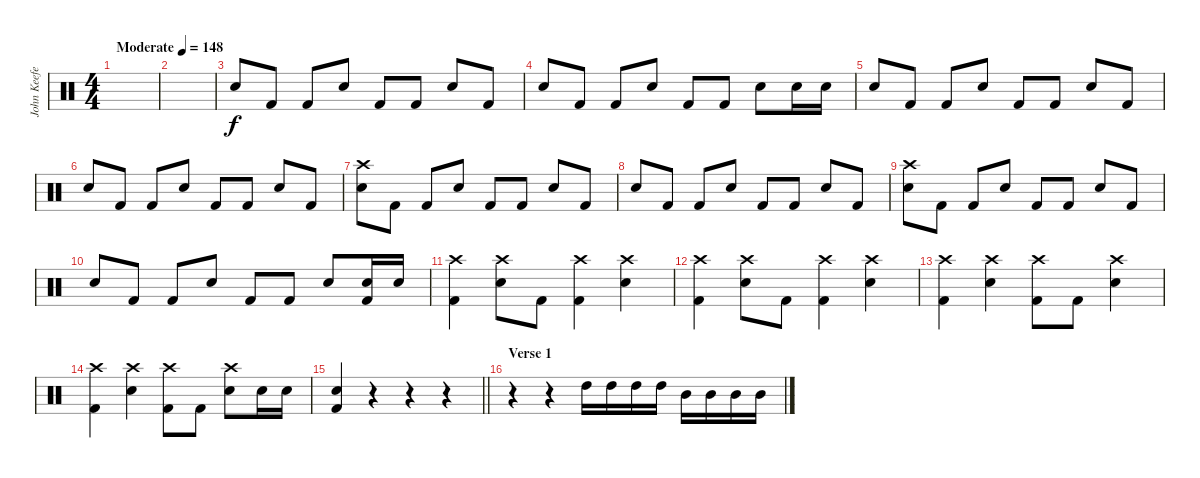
\track ("John Keefe (Percussion)" "John Keefe") {instrument percussion}
\staff {score}
\articulation defaults
\ts (4 4)
\tempo (148 "Moderate")
\clef neutral
\ks c
|
|
"Snare (hit) 2".8 "Kick (hit) 2".8 "Kick (hit) 2".8 "Snare (hit) 2".8 "Kick (hit) 2".8 "Kick (hit) 2".8 "Snare (hit) 2".8 "Kick (hit) 2".8 |
"Snare (hit) 2".8 "Kick (hit) 2".8 "Kick (hit) 2".8 "Snare (hit) 2".8 "Kick (hit) 2".8 "Kick (hit) 2".8 "Snare (hit) 2".8 "Snare (hit) 2".16 "Snare (hit) 2".16 |
"Snare (hit) 2".8 "Kick (hit) 2".8 "Kick (hit) 2".8 "Snare (hit) 2".8 "Kick (hit) 2".8 "Kick (hit) 2".8 "Snare (hit) 2".8 "Kick (hit) 2".8 |
"Snare (hit) 2".8 "Kick (hit) 2".8 "Kick (hit) 2".8 "Snare (hit) 2".8 "Kick (hit) 2".8 "Kick (hit) 2".8 "Snare (hit) 2".8 "Kick (hit) 2".8 |
("Snare (hit) 2" "Crash high (hit)").8 "Kick (hit) 2".8 "Kick (hit) 2".8 "Snare (hit) 2".8 "Kick (hit) 2".8 "Kick (hit) 2".8 "Snare (hit) 2".8 "Kick (hit) 2".8 |
"Snare (hit) 2".8 "Kick (hit) 2".8 "Kick (hit) 2".8 "Snare (hit) 2".8 "Kick (hit) 2".8 "Kick (hit) 2".8 "Snare (hit) 2".8 "Kick (hit) 2".8 |
("Snare (hit) 2" "Crash high (hit)").8 "Kick (hit) 2".8 "Kick (hit) 2".8 "Snare (hit) 2".8 "Kick (hit) 2".8 "Kick (hit) 2".8 "Snare (hit) 2".8 "Kick (hit) 2".8 |
"Snare (hit) 2".8 "Kick (hit) 2".8 "Kick (hit) 2".8 "Snare (hit) 2".8 "Kick (hit) 2".8 "Kick (hit) 2".8 "Snare (hit) 2".8 ("Snare (hit) 2" "Kick (hit) 2").16 "Snare (hit) 2".16 |
("Crash high (hit)" "Kick (hit) 2").4 ("Snare (hit) 2" "Crash high (hit)").8 "Kick (hit) 2".8 ("Kick (hit) 2" "Crash high (hit)").4 ("Snare (hit) 2" "Crash high (hit)").4 |
("Kick (hit) 2" "Crash high (hit)").4 ("Snare (hit) 2" "Crash high (hit)").8 "Kick (hit) 2".8 ("Kick (hit) 2" "Crash high (hit)").4 ("Snare (hit) 2" "Crash high (hit)").4 |
("Kick (hit) 2" "Crash high (hit)").4 ("Snare (hit) 2" "Crash high (hit)").4 ("Kick (hit) 2" "Crash high (hit)").8 "Kick (hit) 2".8 ("Snare (hit) 2" "Crash high (hit)").4 |
("Kick (hit) 2" "Crash high (hit)").4 ("Snare (hit) 2" "Crash high (hit)").4 ("Kick (hit) 2" "Crash high (hit)").8 "Kick (hit) 2".8 ("Snare (hit) 2" "Crash high (hit)").8 "Snare (hit) 2".16 "Snare (hit) 2".16 |
\barLineRight lightlight
("Kick (hit) 2" "Snare (hit) 2").4 r.4 r.4 r.4 |
\section ("" "Verse 1")
r.4 r.4 "High Tom (hit)".16 "High Tom (hit)".16 "High Tom (hit)".16 "High Tom (hit)".16 "Mid Tom (hit)".16 "Mid Tom (hit)".16 "Mid Tom (hit)".16 "Mid Tom (hit)".16
